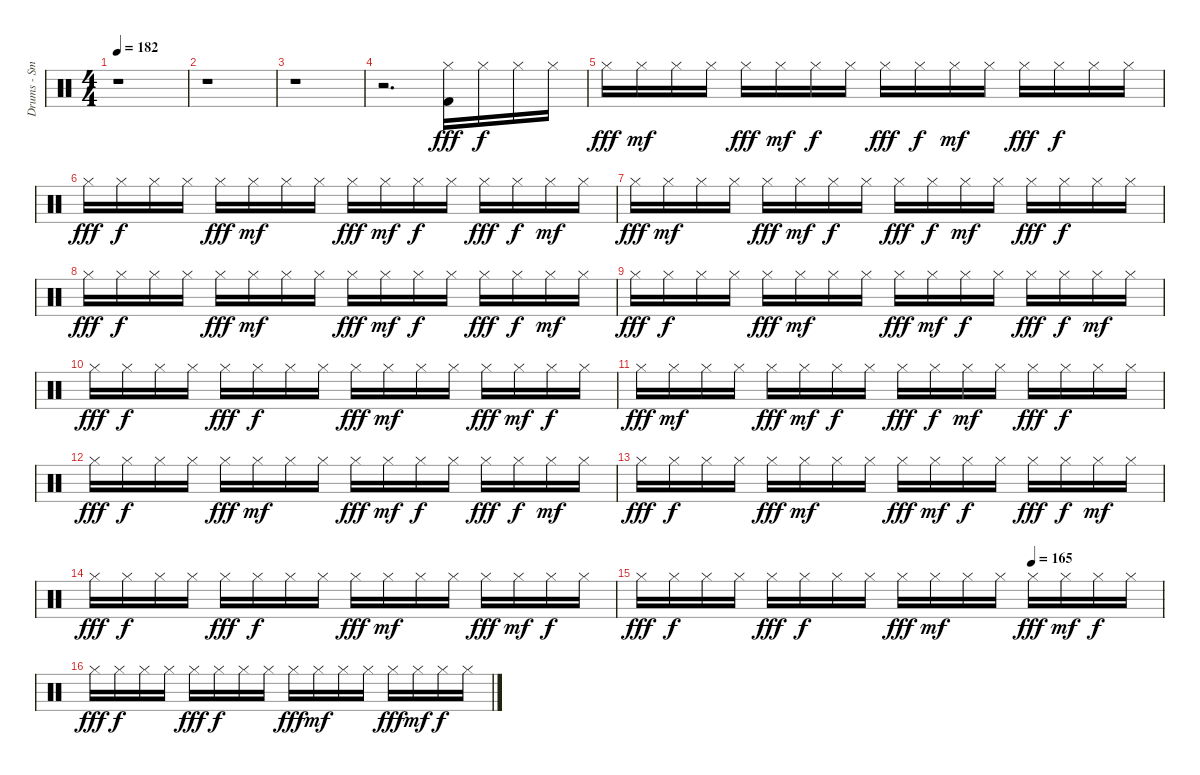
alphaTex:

\track ("Drums - Smelly" "Drums - Sm") {instrument percussion}
\staff {score}
\articulation defaults
\ts (4 4)
\tempo 182
\clef neutral
\ks c
r.1{dy fff} |
r.1 |
r.1 |
r.2{d} ("Kick (hit) 2" "Hi-Hat (closed)").16 "Hi-Hat (closed)".16{dy f} "Hi-Hat (closed)".16 "Hi-Hat (closed)".16 |
"Hi-Hat (closed)".16{dy fff} "Hi-Hat (closed)".16{dy mf} "Hi-Hat (closed)".16 "Hi-Hat (closed)".16 "Hi-Hat (closed)".16{dy fff} "Hi-Hat (closed)".16{dy mf} "Hi-Hat (closed)".16{dy f} "Hi-Hat (closed)".16 "Hi-Hat (closed)".16{dy fff} "Hi-Hat (closed)".16{dy f} "Hi-Hat (closed)".16{dy mf} "Hi-Hat (closed)".16 "Hi-Hat (closed)".16{dy fff} "Hi-Hat (closed)".16{dy f} "Hi-Hat (closed)".16 "Hi-Hat (closed)".16 |
"Hi-Hat (closed)".16{dy fff} "Hi-Hat (closed)".16{dy f} "Hi-Hat (closed)".16 "Hi-Hat (closed)".16 "Hi-Hat (closed)".16{dy fff} "Hi-Hat (closed)".16{dy mf} "Hi-Hat (closed)".16 "Hi-Hat (closed)".16 "Hi-Hat (closed)".16{dy fff} "Hi-Hat (closed)".16{dy mf} "Hi-Hat (closed)".16{dy f} "Hi-Hat (closed)".16 "Hi-Hat (closed)".16{dy fff} "Hi-Hat (closed)".16{dy f} "Hi-Hat (closed)".16{dy mf} "Hi-Hat (closed)".16 |
"Hi-Hat (closed)".16{dy fff} "Hi-Hat (closed)".16{dy mf} "Hi-Hat (closed)".16 "Hi-Hat (closed)".16 "Hi-Hat (closed)".16{dy fff} "Hi-Hat (closed)".16{dy mf} "Hi-Hat (closed)".16{dy f} "Hi-Hat (closed)".16 "Hi-Hat (closed)".16{dy fff} "Hi-Hat (closed)".16{dy f} "Hi-Hat (closed)".16{dy mf} "Hi-Hat (closed)".16 "Hi-Hat (closed)".16{dy fff} "Hi-Hat (closed)".16{dy f} "Hi-Hat (closed)".16 "Hi-Hat (closed)".16 |
"Hi-Hat (closed)".16{dy fff} "Hi-Hat (closed)".16{dy f} "Hi-Hat (closed)".16 "Hi-Hat (closed)".16 "Hi-Hat (closed)".16{dy fff} "Hi-Hat (closed)".16{dy mf} "Hi-Hat (closed)".16 "Hi-Hat (closed)".16 "Hi-Hat (closed)".16{dy fff} "Hi-Hat (closed)".16{dy mf} "Hi-Hat (closed)".16{dy f} "Hi-Hat (closed)".16 "Hi-Hat (closed)".16{dy fff} "Hi-Hat (closed)".16{dy f} "Hi-Hat (closed)".16{dy mf} "Hi-Hat (closed)".16 |
"Hi-Hat (closed)".16{dy fff} "Hi-Hat (closed)".16{dy f} "Hi-Hat (closed)".16 "Hi-Hat (closed)".16 "Hi-Hat (closed)".16{dy fff} "Hi-Hat (closed)".16{dy mf} "Hi-Hat (closed)".16 "Hi-Hat (closed)".16 "Hi-Hat (closed)".16{dy fff} "Hi-Hat (closed)".16{dy mf} "Hi-Hat (closed)".16{dy f} "Hi-Hat (closed)".16 "Hi-Hat (closed)".16{dy fff} "Hi-Hat (closed)".16{dy f} "Hi-Hat (closed)".16{dy mf} "Hi-Hat (closed)".16 |
"Hi-Hat (closed)".16{dy fff} "Hi-Hat (closed)".16{dy f} "Hi-Hat (closed)".16 "Hi-Hat (closed)".16 "Hi-Hat (closed)".16{dy fff} "Hi-Hat (closed)".16{dy f} "Hi-Hat (closed)".16 "Hi-Hat (closed)".16 "Hi-Hat (closed)".16{dy fff} "Hi-Hat (closed)".16{dy mf} "Hi-Hat (closed)".16 "Hi-Hat (closed)".16 "Hi-Hat (closed)".16{dy fff} "Hi-Hat (closed)".16{dy mf} "Hi-Hat (closed)".16{dy f} "Hi-Hat (closed)".16 |
"Hi-Hat (closed)".16{dy fff} "Hi-Hat (closed)".16{dy mf} "Hi-Hat (closed)".16 "Hi-Hat (closed)".16 "Hi-Hat (closed)".16{dy fff} "Hi-Hat (closed)".16{dy mf} "Hi-Hat (closed)".16{dy f} "Hi-Hat (closed)".16 "Hi-Hat (closed)".16{dy fff} "Hi-Hat (closed)".16{dy f} "Hi-Hat (closed)".16{dy mf} "Hi-Hat (closed)".16 "Hi-Hat (closed)".16{dy fff} "Hi-Hat (closed)".16{dy f} "Hi-Hat (closed)".16 "Hi-Hat (closed)".16 |
"Hi-Hat (closed)".16{dy fff} "Hi-Hat (closed)".16{dy f} "Hi-Hat (closed)".16 "Hi-Hat (closed)".16 "Hi-Hat (closed)".16{dy fff} "Hi-Hat (closed)".16{dy mf} "Hi-Hat (closed)".16 "Hi-Hat (closed)".16 "Hi-Hat (closed)".16{dy fff} "Hi-Hat (closed)".16{dy mf} "Hi-Hat (closed)".16{dy f} "Hi-Hat (closed)".16 "Hi-Hat (closed)".16{dy fff} "Hi-Hat (closed)".16{dy f} "Hi-Hat (closed)".16{dy mf} "Hi-Hat (closed)".16 |
"Hi-Hat (closed)".16{dy fff} "Hi-Hat (closed)".16{dy f} "Hi-Hat (closed)".16 "Hi-Hat (closed)".16 "Hi-Hat (closed)".16{dy fff} "Hi-Hat (closed)".16{dy mf} "Hi-Hat (closed)".16 "Hi-Hat (closed)".16 "Hi-Hat (closed)".16{dy fff} "Hi-Hat (closed)".16{dy mf} "Hi-Hat (closed)".16{dy f} "Hi-Hat (closed)".16 "Hi-Hat (closed)".16{dy fff} "Hi-Hat (closed)".16{dy f} "Hi-Hat (closed)".16{dy mf} "Hi-Hat (closed)".16 |
"Hi-Hat (closed)".16{dy fff} "Hi-Hat (closed)".16{dy f} "Hi-Hat (closed)".16 "Hi-Hat (closed)".16 "Hi-Hat (closed)".16{dy fff} "Hi-Hat (closed)".16{dy f} "Hi-Hat (closed)".16 "Hi-Hat (closed)".16 "Hi-Hat (closed)".16{dy fff} "Hi-Hat (closed)".16{dy mf} "Hi-Hat (closed)".16 "Hi-Hat (closed)".16 "Hi-Hat (closed)".16{dy fff} "Hi-Hat (closed)".16{dy mf} "Hi-Hat (closed)".16{dy f} "Hi-Hat (closed)".16 |
\tempo (165 0.75)
"Hi-Hat (closed)".16{dy fff} "Hi-Hat (closed)".16{dy f} "Hi-Hat (closed)".16 "Hi-Hat (closed)".16 "Hi-Hat (closed)".16{dy fff} "Hi-Hat (closed)".16{dy f} "Hi-Hat (closed)".16 "Hi-Hat (closed)".16 "Hi-Hat (closed)".16{dy fff} "Hi-Hat (closed)".16{dy mf} "Hi-Hat (closed)".16 "Hi-Hat (closed)".16 "Hi-Hat (closed)".16{dy fff} "Hi-Hat (closed)".16{dy mf} "Hi-Hat (closed)".16{dy f} "Hi-Hat (closed)".16 |
"Hi-Hat (closed)".16{dy fff} "Hi-Hat (closed)".16{dy f} "Hi-Hat (closed)".16 "Hi-Hat (closed)".16 "Hi-Hat (closed)".16{dy fff} "Hi-Hat (closed)".16{dy f} "Hi-Hat (closed)".16 "Hi-Hat (closed)".16 "Hi-Hat (closed)".16{dy fff} "Hi-Hat (closed)".16{dy mf} "Hi-Hat (closed)".16 "Hi-Hat (closed)".16 "Hi-Hat (closed)".16{dy fff} "Hi-Hat (closed)".16{dy mf} "Hi-Hat (closed)".16{dy f} "Hi-Hat (closed)".16
